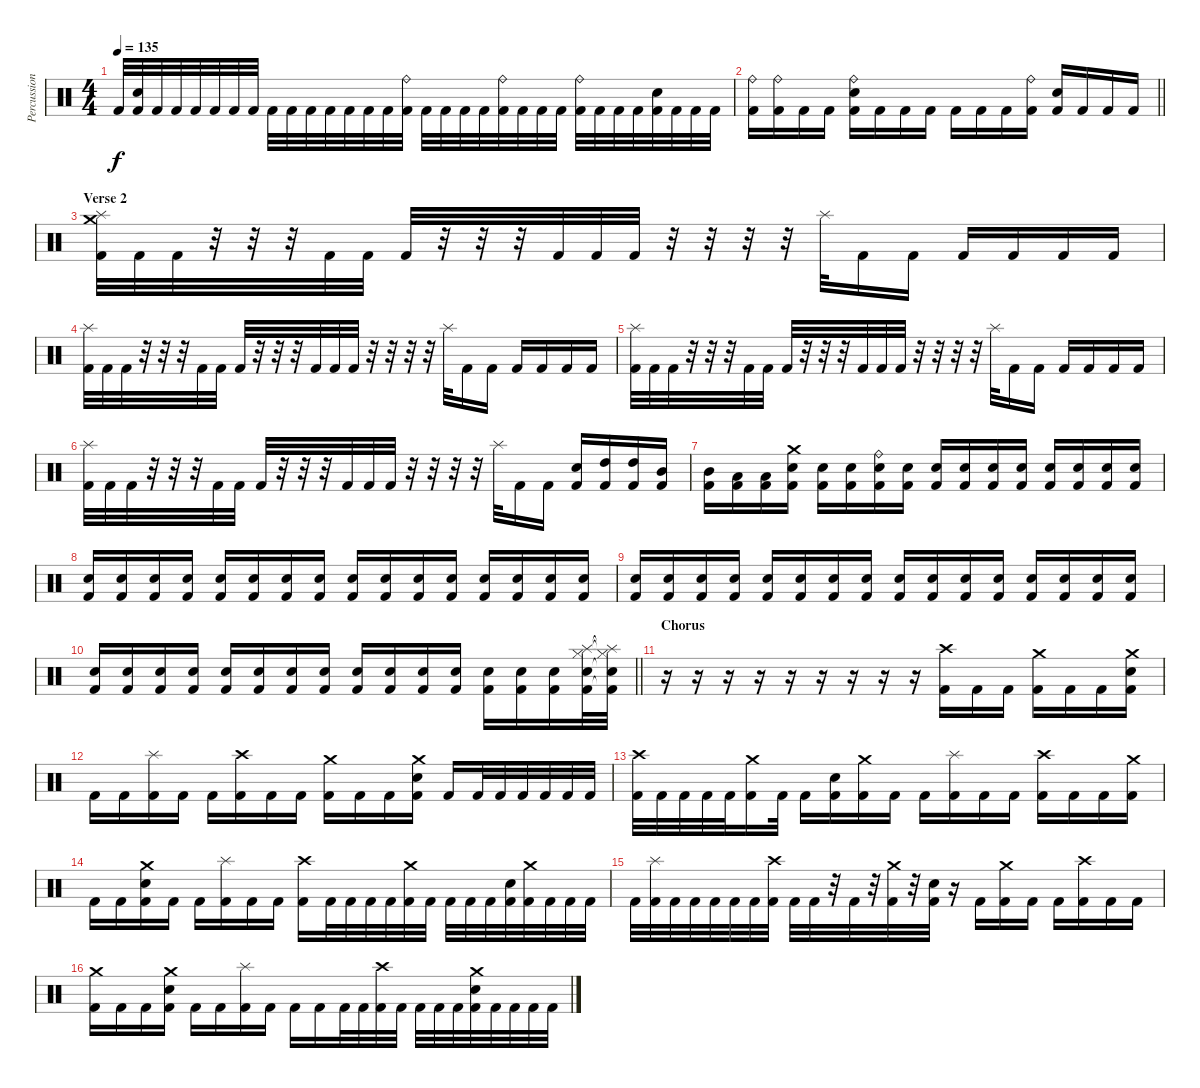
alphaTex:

\track ("Percussion" "Percussion") {instrument percussion}
\staff {score}
\articulation defaults
\ts (4 4)
\tempo 135
\clef neutral
\ks c "Kick (hit) 2".32{dy f}
("Electric Snare (hit)" "Kick (hit) 2").32 "Kick (hit) 2".32 "Kick (hit) 2".32 "Kick (hit) 2".32 "Kick (hit) 2".32 "Kick (hit) 2".32 "Kick (hit) 2".32 "Kick (hit) 2".32 "Kick (hit) 2".32 "Kick (hit) 2".32 "Kick (hit) 2".32 "Kick (hit) 2".32 "Kick (hit) 2".32 "Kick (hit) 2".32 ("Ride (bell)" "Kick (hit) 2").32 "Kick (hit) 2".32 "Kick (hit) 2".32 "Kick (hit) 2".32 "Kick (hit) 2".32 ("Ride (bell)" "Kick (hit) 2").32 "Kick (hit) 2".32 "Kick (hit) 2".32 "Kick (hit) 2".32 ("Ride (bell)" "Kick (hit) 2").32 "Kick (hit) 2".32 "Kick (hit) 2".32 "Kick (hit) 2".32 ("Electric Snare (hit)" "Kick (hit) 2").32 "Kick (hit) 2".32 "Kick (hit) 2".32 "Kick (hit) 2".32 |
\barLineRight lightlight
("Ride (bell)" "Kick (hit) 2").16 ("Ride (bell)" "Kick (hit) 2").16 "Kick (hit) 2".16 "Kick (hit) 2".16 ("Ride (bell)" "Electric Snare (hit)" "Kick (hit) 2").16 "Kick (hit) 2".16 "Kick (hit) 2".16 "Kick (hit) 2".16 "Kick (hit) 2".16 "Kick (hit) 2".16 "Kick (hit) 2".16 ("Ride (bell)" "Kick (hit) 2").16 ("Electric Snare (hit)" "Kick (hit) 2").16 "Kick (hit) 2".16 "Kick (hit) 2".16 "Kick (hit) 2".16 |
\section ("" "Verse 2")
("Crash medium (hit)" "Splash (hit)" "Kick (hit) 2").32 "Kick (hit) 2".32 "Kick (hit) 2".32 r.32 r.32 r.32 "Kick (hit) 2".32 "Kick (hit) 2".32 "Kick (hit) 2".32 r.32 r.32 r.32 "Kick (hit) 2".32 "Kick (hit) 2".32 "Kick (hit) 2".32 r.32 r.32 r.32 r.32 "Splash (hit)".32 "Kick (hit) 2".16 "Kick (hit) 2".16 "Kick (hit) 2".16 "Kick (hit) 2".16 "Kick (hit) 2".16 "Kick (hit) 2".16 |
("Splash (hit)" "Kick (hit) 2").32 "Kick (hit) 2".32 "Kick (hit) 2".32 r.32 r.32 r.32 "Kick (hit) 2".32 "Kick (hit) 2".32 "Kick (hit) 2".32 r.32 r.32 r.32 "Kick (hit) 2".32 "Kick (hit) 2".32 "Kick (hit) 2".32 r.32 r.32 r.32 r.32 "Splash (hit)".32 "Kick (hit) 2".16 "Kick (hit) 2".16 "Kick (hit) 2".16 "Kick (hit) 2".16 "Kick (hit) 2".16 "Kick (hit) 2".16 |
("Splash (hit)" "Kick (hit) 2").32 "Kick (hit) 2".32 "Kick (hit) 2".32 r.32 r.32 r.32 "Kick (hit) 2".32 "Kick (hit) 2".32 "Kick (hit) 2".32 r.32 r.32 r.32 "Kick (hit) 2".32 "Kick (hit) 2".32 "Kick (hit) 2".32 r.32 r.32 r.32 r.32 "Splash (hit)".32 "Kick (hit) 2".16 "Kick (hit) 2".16 "Kick (hit) 2".16 "Kick (hit) 2".16 "Kick (hit) 2".16 "Kick (hit) 2".16 |
("Splash (hit)" "Kick (hit) 2").32 "Kick (hit) 2".32 "Kick (hit) 2".32 r.32 r.32 r.32 "Kick (hit) 2".32 "Kick (hit) 2".32 "Kick (hit) 2".32 r.32 r.32 r.32 "Kick (hit) 2".32 "Kick (hit) 2".32 "Kick (hit) 2".32 r.32 r.32 r.32 r.32 "Splash (hit)".32 "Kick (hit) 2".16 "Kick (hit) 2".16 ("Electric Snare (hit)" "Kick (hit) 2").16 ("High Tom (hit)" "Kick (hit) 2").16 ("High Tom (hit)" "Kick (hit) 2").16 ("Mid Tom (hit)" "Kick (hit) 2").16 |
("Mid Tom (hit)" "Kick (hit) 2").16 ("Low Tom (hit)" "Kick (hit) 2").16 ("Low Tom (hit)" "Kick (hit) 2").16 ("Crash medium (hit)" "Electric Snare (hit)" "Kick (hit) 2").16 ("Electric Snare (hit)" "Kick (hit) 2").16 ("Electric Snare (hit)" "Kick (hit) 2").16 ("Ride (bell)" "Electric Snare (hit)" "Kick (hit) 2").16 ("Electric Snare (hit)" "Kick (hit) 2").16 ("Electric Snare (hit)" "Kick (hit) 2").16 ("Electric Snare (hit)" "Kick (hit) 2").16 ("Electric Snare (hit)" "Kick (hit) 2").16 ("Electric Snare (hit)" "Kick (hit) 2").16 ("Electric Snare (hit)" "Kick (hit) 2").16 ("Electric Snare (hit)" "Kick (hit) 2").16 ("Electric Snare (hit)" "Kick (hit) 2").16 ("Electric Snare (hit)" "Kick (hit) 2").16 |
("Electric Snare (hit)" "Kick (hit) 2").16 ("Electric Snare (hit)" "Kick (hit) 2").16 ("Electric Snare (hit)" "Kick (hit) 2").16 ("Electric Snare (hit)" "Kick (hit) 2").16 ("Electric Snare (hit)" "Kick (hit) 2").16 ("Electric Snare (hit)" "Kick (hit) 2").16 ("Electric Snare (hit)" "Kick (hit) 2").16 ("Electric Snare (hit)" "Kick (hit) 2").16 ("Electric Snare (hit)" "Kick (hit) 2").16 ("Electric Snare (hit)" "Kick (hit) 2").16 ("Electric Snare (hit)" "Kick (hit) 2").16 ("Electric Snare (hit)" "Kick (hit) 2").16 ("Electric Snare (hit)" "Kick (hit) 2").16 ("Electric Snare (hit)" "Kick (hit) 2").16 ("Electric Snare (hit)" "Kick (hit) 2").16 ("Electric Snare (hit)" "Kick (hit) 2").16 |
("Electric Snare (hit)" "Kick (hit) 2").16 ("Electric Snare (hit)" "Kick (hit) 2").16 ("Electric Snare (hit)" "Kick (hit) 2").16 ("Electric Snare (hit)" "Kick (hit) 2").16 ("Electric Snare (hit)" "Kick (hit) 2").16 ("Electric Snare (hit)" "Kick (hit) 2").16 ("Electric Snare (hit)" "Kick (hit) 2").16 ("Electric Snare (hit)" "Kick (hit) 2").16 ("Electric Snare (hit)" "Kick (hit) 2").16 ("Electric Snare (hit)" "Kick (hit) 2").16 ("Electric Snare (hit)" "Kick (hit) 2").16 ("Electric Snare (hit)" "Kick (hit) 2").16 ("Electric Snare (hit)" "Kick (hit) 2").16 ("Electric Snare (hit)" "Kick (hit) 2").16 ("Electric Snare (hit)" "Kick (hit) 2").16 ("Electric Snare (hit)" "Kick (hit) 2").16 |
\barLineRight lightlight
("Electric Snare (hit)" "Kick (hit) 2").16 ("Electric Snare (hit)" "Kick (hit) 2").16 ("Electric Snare (hit)" "Kick (hit) 2").16 ("Electric Snare (hit)" "Kick (hit) 2").16 ("Electric Snare (hit)" "Kick (hit) 2").16 ("Electric Snare (hit)" "Kick (hit) 2").16 ("Electric Snare (hit)" "Kick (hit) 2").16 ("Electric Snare (hit)" "Kick (hit) 2").16 ("Electric Snare (hit)" "Kick (hit) 2").16 ("Electric Snare (hit)" "Kick (hit) 2").16 ("Electric Snare (hit)" "Kick (hit) 2").16 ("Electric Snare (hit)" "Kick (hit) 2").16 ("Electric Snare (hit)" "Kick (hit) 2").16 ("Electric Snare (hit)" "Kick (hit) 2").16 ("Electric Snare (hit)" "Kick (hit) 2").16 ("Hi-Hat (closed)" "Splash (hit)" "Electric Snare (hit)" "Kick (hit) 2").32 ("Hi-Hat (closed)"{t} "Splash (hit)"{t} "Electric Snare (hit)"{t} "Kick (hit) 2"{t}).32 |
\section ("" "Chorus")
r.16 r.16 r.16 r.16 r.16 r.16 r.16 r.16 r.16 ("Crash high (hit)" "Kick (hit) 2").16 "Kick (hit) 2".16 "Kick (hit) 2".16 ("Crash medium (hit)" "Kick (hit) 2").16 "Kick (hit) 2".16 "Kick (hit) 2".16 ("Crash medium (hit)" "Electric Snare (hit)" "Kick (hit) 2").16 |
"Kick (hit) 2".16 "Kick (hit) 2".16 ("Splash (hit)" "Kick (hit) 2").16 "Kick (hit) 2".16 "Kick (hit) 2".16 ("Crash high (hit)" "Kick (hit) 2").16 "Kick (hit) 2".16 "Kick (hit) 2".16 ("Crash medium (hit)" "Kick (hit) 2").16 "Kick (hit) 2".16 "Kick (hit) 2".16 ("Crash medium (hit)" "Electric Snare (hit)" "Kick (hit) 2").16 "Kick (hit) 2".16 "Kick (hit) 2".32 "Kick (hit) 2".32 "Kick (hit) 2".32 "Kick (hit) 2".32 "Kick (hit) 2".32 "Kick (hit) 2".32 |
("Crash high (hit)" "Kick (hit) 2").32 "Kick (hit) 2".32 "Kick (hit) 2".32 "Kick (hit) 2".32 "Kick (hit) 2".32 ("Crash medium (hit)" "Kick (hit) 2").16 "Kick (hit) 2".32 "Kick (hit) 2".16 ("Electric Snare (hit)" "Kick (hit) 2").16 ("Crash medium (hit)" "Kick (hit) 2").16 "Kick (hit) 2".16 "Kick (hit) 2".16 ("Splash (hit)" "Kick (hit) 2").16 "Kick (hit) 2".16 "Kick (hit) 2".16 ("Crash high (hit)" "Kick (hit) 2").16 "Kick (hit) 2".16 "Kick (hit) 2".16 ("Crash medium (hit)" "Kick (hit) 2").16 |
"Kick (hit) 2".16 "Kick (hit) 2".16 ("Crash medium (hit)" "Electric Snare (hit)" "Kick (hit) 2").16 "Kick (hit) 2".16 "Kick (hit) 2".16 ("Splash (hit)" "Kick (hit) 2").16 "Kick (hit) 2".16 "Kick (hit) 2".16 ("Crash high (hit)" "Kick (hit) 2").16 "Kick (hit) 2".32 "Kick (hit) 2".32 "Kick (hit) 2".32 "Kick (hit) 2".32 ("Crash medium (hit)" "Kick (hit) 2").32 "Kick (hit) 2".32 "Kick (hit) 2".32 "Kick (hit) 2".32 "Kick (hit) 2".32 ("Electric Snare (hit)" "Kick (hit) 2").32 ("Crash medium (hit)" "Kick (hit) 2").32 "Kick (hit) 2".32 "Kick (hit) 2".32 "Kick (hit) 2".32 |
"Kick (hit) 2".32 ("Splash (hit)" "Kick (hit) 2").32 "Kick (hit) 2".32 "Kick (hit) 2".32 "Kick (hit) 2".32 "Kick (hit) 2".32 "Kick (hit) 2".32 ("Crash high (hit)" "Kick (hit) 2").32 "Kick (hit) 2".32 "Kick (hit) 2".32 r.32 "Kick (hit) 2".32 r.32 ("Crash medium (hit)" "Kick (hit) 2").32 r.32 ("Electric Snare (hit)" "Kick (hit) 2").32 r.16 "Kick (hit) 2".16 ("Crash medium (hit)" "Kick (hit) 2").16 "Kick (hit) 2".16 "Kick (hit) 2".16 ("Crash high (hit)" "Kick (hit) 2").16 "Kick (hit) 2".16 "Kick (hit) 2".16 |
("Crash medium (hit)" "Kick (hit) 2").16 "Kick (hit) 2".16 "Kick (hit) 2".16 ("Crash medium (hit)" "Electric Snare (hit)" "Kick (hit) 2").16 "Kick (hit) 2".16 "Kick (hit) 2".16 ("Splash (hit)" "Kick (hit) 2").16 "Kick (hit) 2".16 "Kick (hit) 2".16 "Kick (hit) 2".16 "Kick (hit) 2".32 "Kick (hit) 2".32 ("Crash high (hit)" "Kick (hit) 2").32 "Kick (hit) 2".32 "Kick (hit) 2".32 "Kick (hit) 2".32 "Kick (hit) 2".32 ("Crash medium (hit)" "Electric Snare (hit)" "Kick (hit) 2").32 "Kick (hit) 2".32 "Kick (hit) 2".32 "Kick (hit) 2".32 "Kick (hit) 2".32
